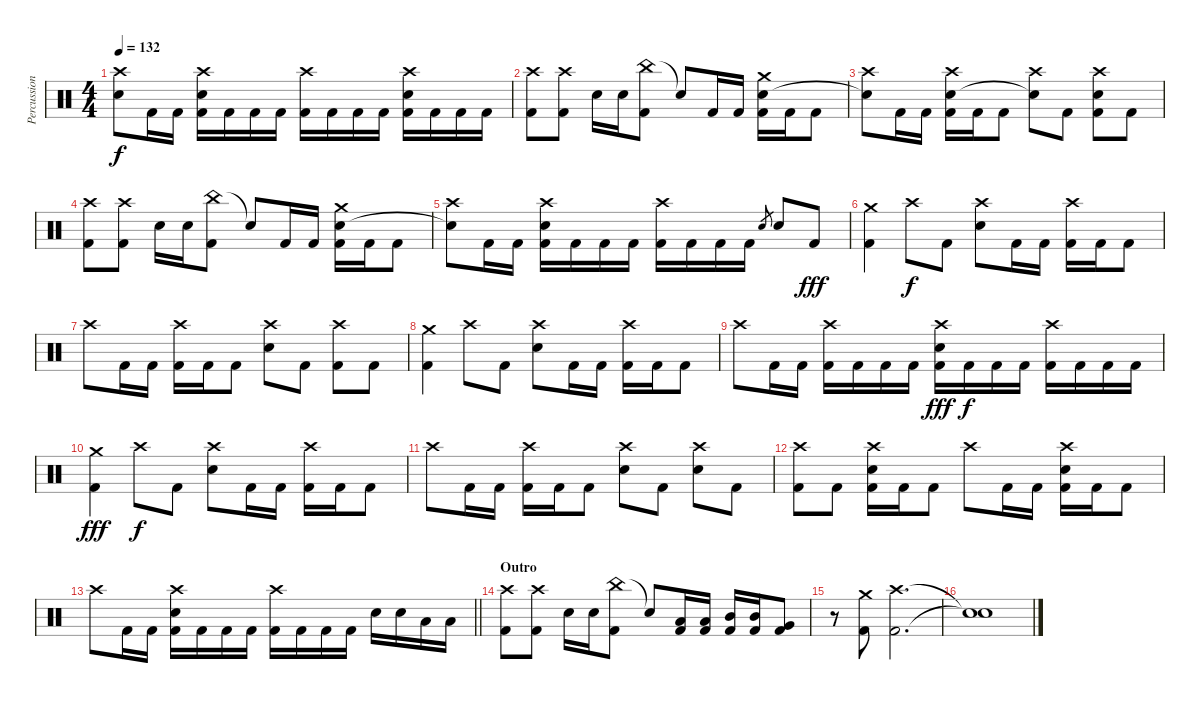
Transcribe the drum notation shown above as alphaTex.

\track ("Percussion" "Percussion") {instrument percussion}
\staff {score}
\articulation defaults
\ts (4 4)
\tempo 132
\clef neutral
\ks c
("Crash high (hit)" "Snare (hit)"{t}).8{dy f} "Kick (hit) 2".16 "Kick (hit) 2".16 ("Crash high (hit)" "Electric Snare (hit)" "Kick (hit) 2").16 "Kick (hit) 2".16 "Kick (hit) 2".16 "Kick (hit) 2".16 ("Crash high (hit)" "Kick (hit) 2").16 "Kick (hit) 2".16 "Kick (hit) 2".16 "Kick (hit) 2".16 ("Crash high (hit)" "Electric Snare (hit)" "Kick (hit) 2").16 "Kick (hit) 2".16 "Kick (hit) 2".16 "Kick (hit) 2".16 |
("Crash high (hit)" "Kick (hit) 2").8 ("Crash high (hit)" "Kick (hit) 2").8 "Electric Snare (hit)".16 "Electric Snare (hit)".16 ("China (hit)" "Kick (hit) 2").8 "Snare (hit)"{t}.8 "Kick (hit) 2".16 "Kick (hit) 2".16 ("Crash medium (hit)" "Electric Snare (hit)" "Kick (hit) 2").16 "Kick (hit) 2".16 "Kick (hit) 2".8 |
("Crash high (hit)" "Snare (hit)"{t}).8 "Kick (hit) 2".16 "Kick (hit) 2".16 ("Crash high (hit)" "Electric Snare (hit)" "Kick (hit) 2").16 "Kick (hit) 2".16 "Kick (hit) 2".8 ("Crash high (hit)" "Snare (hit)"{t}).8 "Kick (hit) 2".8 ("Crash high (hit)" "Electric Snare (hit)" "Kick (hit) 2").8 "Kick (hit) 2".8 |
("Crash high (hit)" "Kick (hit) 2").8 ("Crash high (hit)" "Kick (hit) 2").8 "Electric Snare (hit)".16 "Electric Snare (hit)".16 ("China (hit)" "Kick (hit) 2").8 "Snare (hit)"{t}.8 "Kick (hit) 2".16 "Kick (hit) 2".16 ("Crash medium (hit)" "Electric Snare (hit)" "Kick (hit) 2").16 "Kick (hit) 2".16 "Kick (hit) 2".8 |
("Crash high (hit)" "Snare (hit)"{t}).8 "Kick (hit) 2".16 "Kick (hit) 2".16 ("Crash high (hit)" "Electric Snare (hit)" "Kick (hit) 2").16 "Kick (hit) 2".16 "Kick (hit) 2".16 "Kick (hit) 2".16 ("Crash high (hit)" "Kick (hit) 2").16 "Kick (hit) 2".16 "Kick (hit) 2".16 "Kick (hit) 2".16 "Electric Snare (hit)".8{gr} "Electric Snare (hit)".8 "Kick (hit) 2".8{dy fff} |
("Crash medium (hit)" "Kick (hit) 2").4 "Crash high (hit)".8{dy f} "Kick (hit) 2".8 ("Crash high (hit)" "Electric Snare (hit)").8 "Kick (hit) 2".16 "Kick (hit) 2".16 ("Crash high (hit)" "Kick (hit) 2").16 "Kick (hit) 2".16 "Kick (hit) 2".8 |
"Crash high (hit)".8 "Kick (hit) 2".16 "Kick (hit) 2".16 ("Crash high (hit)" "Kick (hit) 2").16 "Kick (hit) 2".16 "Kick (hit) 2".8 ("Crash high (hit)" "Electric Snare (hit)").8 "Kick (hit) 2".8 ("Crash high (hit)" "Kick (hit) 2").8 "Kick (hit) 2".8 |
("Crash medium (hit)" "Kick (hit) 2").4 "Crash high (hit)".8 "Kick (hit) 2".8 ("Crash high (hit)" "Electric Snare (hit)").8 "Kick (hit) 2".16 "Kick (hit) 2".16 ("Crash high (hit)" "Kick (hit) 2").16 "Kick (hit) 2".16 "Kick (hit) 2".8 |
"Crash high (hit)".8 "Kick (hit) 2".16 "Kick (hit) 2".16 ("Crash high (hit)" "Kick (hit) 2").16 "Kick (hit) 2".16 "Kick (hit) 2".16 "Kick (hit) 2".16 ("Crash high (hit)" "Electric Snare (hit)" "Kick (hit) 2").16{dy fff} "Kick (hit) 2".16{dy f} "Kick (hit) 2".16 "Kick (hit) 2".16 ("Crash high (hit)" "Kick (hit) 2").16 "Kick (hit) 2".16 "Kick (hit) 2".16 "Kick (hit) 2".16 |
("Crash medium (hit)" "Kick (hit) 2").4{dy fff} "Crash high (hit)".8{dy f} "Kick (hit) 2".8 ("Crash high (hit)" "Electric Snare (hit)").8 "Kick (hit) 2".16 "Kick (hit) 2".16 ("Crash high (hit)" "Kick (hit) 2").16 "Kick (hit) 2".16 "Kick (hit) 2".8 |
"Crash high (hit)".8 "Kick (hit) 2".16 "Kick (hit) 2".16 ("Crash high (hit)" "Kick (hit) 2").16 "Kick (hit) 2".16 "Kick (hit) 2".8 ("Crash high (hit)" "Electric Snare (hit)").8 "Kick (hit) 2".8 ("Crash high (hit)" "Electric Snare (hit)").8 "Kick (hit) 2".8 |
("Crash high (hit)" "Kick (hit) 2").8 "Kick (hit) 2".8 ("Crash high (hit)" "Electric Snare (hit)" "Kick (hit) 2").16 "Kick (hit) 2".16 "Kick (hit) 2".8 "Crash high (hit)".8 "Kick (hit) 2".16 "Kick (hit) 2".16 ("Crash high (hit)" "Electric Snare (hit)" "Kick (hit) 2").16 "Kick (hit) 2".16 "Kick (hit) 2".8 |
\barLineRight lightlight "Crash high (hit)".8 "Kick (hit) 2".16 "Kick (hit) 2".16
("Crash high (hit)" "Electric Snare (hit)" "Kick (hit) 2").16 "Kick (hit) 2".16 "Kick (hit) 2".16 "Kick (hit) 2".16 ("Crash high (hit)" "Kick (hit) 2").16 "Kick (hit) 2".16 "Kick (hit) 2".16 "Kick (hit) 2".16 "Electric Snare (hit)".16 "Electric Snare (hit)".16 "Low Tom (hit)".16 "Low Tom (hit)".16 |
\section ("" "Outro")
("Crash high (hit)" "Kick (hit) 2").8 ("Crash high (hit)" "Kick (hit) 2").8 "Electric Snare (hit)".16 "Electric Snare (hit)".16 ("China (hit)" "Kick (hit) 2").8 "Snare (hit)"{t}.8 ("Low Tom (hit)" "Kick (hit) 2").16 ("Low Tom (hit)" "Kick (hit) 2").16 ("Mid Tom (hit)" "Kick (hit) 2").16 ("Mid Tom (hit)" "Kick (hit) 2").16 ("Very Low Tom (hit)" "Kick (hit) 2").8 |
r.8 ("Crash medium (hit)" "Kick (hit) 2").8 ("Crash high (hit)" "Kick (hit) 2").2{d} |
("Snare (hit)"{t} "Snare (hit)"{t}).1
